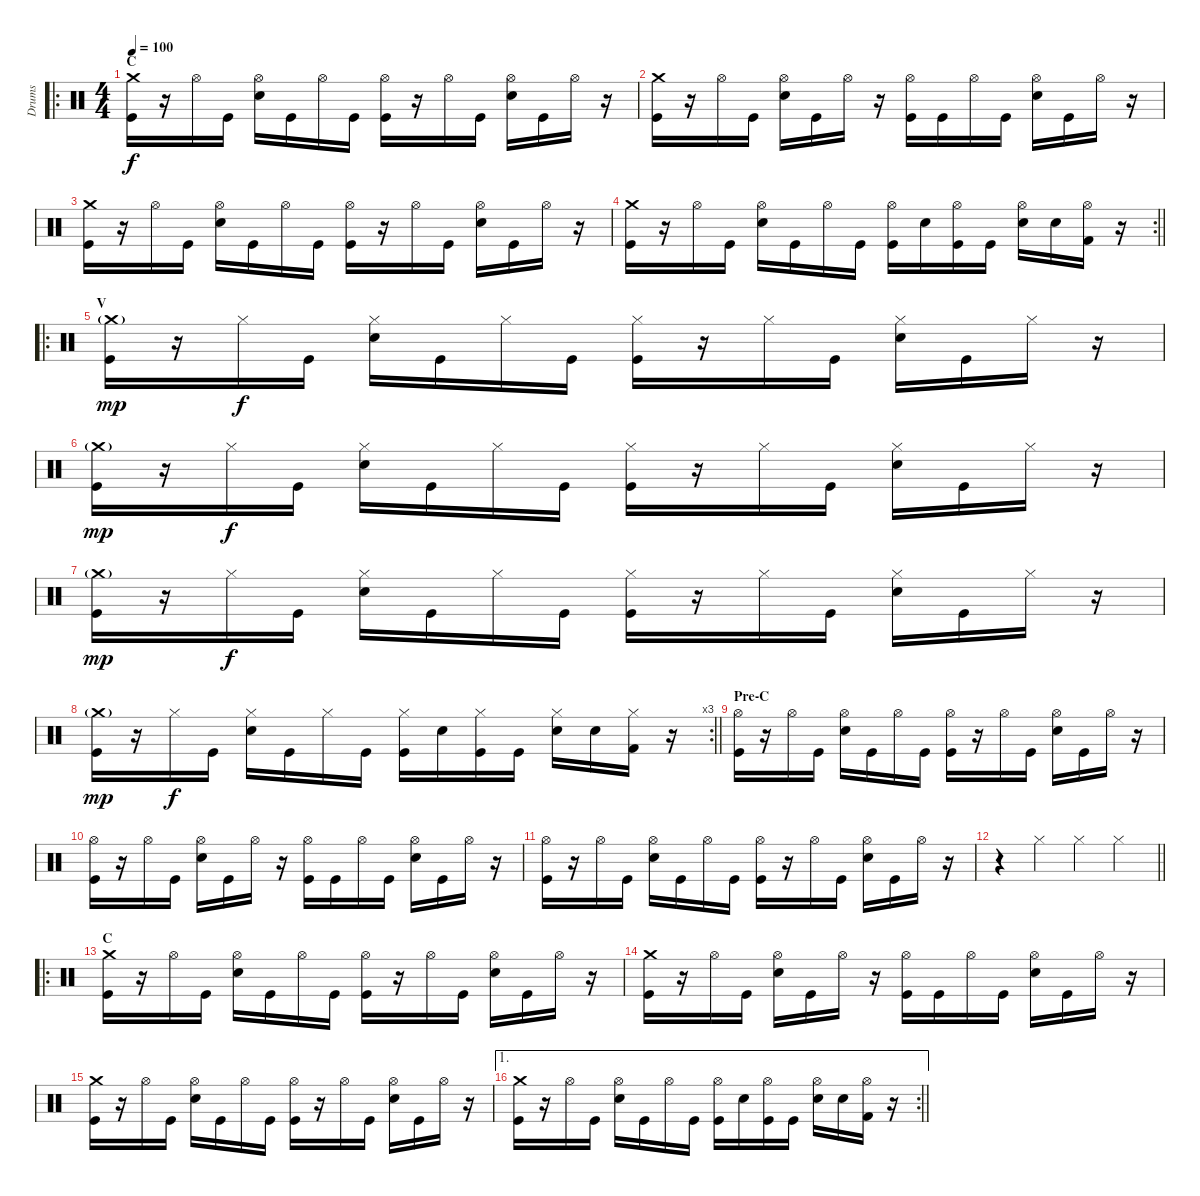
\track ("Drums" "Drums") {instrument percussion}
\staff {score}
\articulation defaults
\ro
\ts (4 4)
\section ("" "C")
\tempo 100
\clef neutral
\ks c
("Crash medium (hit)" "Kick (hit)").16{dy f} r.16 "Hi-Hat (open)".16 "Kick (hit)".16 ("Hi-Hat (open)" "Snare (hit) 2").16 "Kick (hit)".16 "Hi-Hat (open)".16 "Kick (hit)".16 ("Hi-Hat (open)" "Kick (hit)").16 r.16 "Hi-Hat (open)".16 "Kick (hit)".16 ("Hi-Hat (open)" "Snare (hit) 2").16 "Kick (hit)".16 "Hi-Hat (open)".16 r.16 |
("Crash medium (hit)" "Kick (hit)").16 r.16 "Hi-Hat (open)".16 "Kick (hit)".16 ("Hi-Hat (open)" "Snare (hit) 2").16 "Kick (hit)".16 "Hi-Hat (open)".16 r.16 ("Hi-Hat (open)" "Kick (hit)").16 "Kick (hit)".16 "Hi-Hat (open)".16 "Kick (hit)".16 ("Hi-Hat (open)" "Snare (hit) 2").16 "Kick (hit)".16 "Hi-Hat (open)".16 r.16 |
("Crash medium (hit)" "Kick (hit)").16 r.16 "Hi-Hat (open)".16 "Kick (hit)".16 ("Hi-Hat (open)" "Snare (hit) 2").16 "Kick (hit)".16 "Hi-Hat (open)".16 "Kick (hit)".16 ("Hi-Hat (open)" "Kick (hit)").16 r.16 "Hi-Hat (open)".16 "Kick (hit)".16 ("Hi-Hat (open)" "Snare (hit) 2").16 "Kick (hit)".16 "Hi-Hat (open)".16 r.16 |
\rc 2
\barLineRight lightlight
("Crash medium (hit)" "Kick (hit)").16 r.16 "Hi-Hat (open)".16 "Kick (hit)".16 ("Hi-Hat (open)" "Snare (hit) 2").16 "Kick (hit)".16 "Hi-Hat (open)".16 "Kick (hit)".16 ("Hi-Hat (open)" "Kick (hit)").16 "Snare (hit) 2".16 ("Hi-Hat (open)" "Kick (hit)").16 "Kick (hit)".16 ("Hi-Hat (open)" "Snare (hit) 2").16 "Snare (hit) 2".16 ("Hi-Hat (open)" "Kick (hit) 2").16 r.16 |
\ro
\section ("" "V")
("Crash medium (hit)"{g} "Kick (hit)").16{dy mp} r.16 "Hi-Hat (closed)".16{dy f} "Kick (hit)".16 ("Hi-Hat (closed)" "Snare (hit) 2").16 "Kick (hit)".16 "Hi-Hat (closed)".16 "Kick (hit)".16 ("Hi-Hat (closed)" "Kick (hit)").16 r.16 "Hi-Hat (closed)".16 "Kick (hit)".16 ("Hi-Hat (closed)" "Snare (hit) 2").16 "Kick (hit)".16 "Hi-Hat (closed)".16 r.16 |
("Crash medium (hit)"{g} "Kick (hit)").16{dy mp} r.16 "Hi-Hat (closed)".16{dy f} "Kick (hit)".16 ("Hi-Hat (closed)" "Snare (hit) 2").16 "Kick (hit)".16 "Hi-Hat (closed)".16 "Kick (hit)".16 ("Hi-Hat (closed)" "Kick (hit)").16 r.16 "Hi-Hat (closed)".16 "Kick (hit)".16 ("Hi-Hat (closed)" "Snare (hit) 2").16 "Kick (hit)".16 "Hi-Hat (closed)".16 r.16 |
("Crash medium (hit)"{g} "Kick (hit)").16{dy mp} r.16 "Hi-Hat (closed)".16{dy f} "Kick (hit)".16 ("Hi-Hat (closed)" "Snare (hit) 2").16 "Kick (hit)".16 "Hi-Hat (closed)".16 "Kick (hit)".16 ("Hi-Hat (closed)" "Kick (hit)").16 r.16 "Hi-Hat (closed)".16 "Kick (hit)".16 ("Hi-Hat (closed)" "Snare (hit) 2").16 "Kick (hit)".16 "Hi-Hat (closed)".16 r.16 |
\rc 3
\barLineRight lightlight
("Crash medium (hit)"{g} "Kick (hit)").16{dy mp} r.16 "Hi-Hat (closed)".16{dy f} "Kick (hit)".16 ("Hi-Hat (closed)" "Snare (hit) 2").16 "Kick (hit)".16 "Hi-Hat (closed)".16 "Kick (hit)".16 ("Hi-Hat (closed)" "Kick (hit)").16 "Snare (hit) 2".16 ("Hi-Hat (closed)" "Kick (hit)").16 "Kick (hit)".16 ("Hi-Hat (closed)" "Snare (hit) 2").16 "Snare (hit) 2".16 ("Hi-Hat (closed)" "Kick (hit) 2").16 r.16 |
\section ("" "Pre-C")
("Hi-Hat (open)" "Kick (hit)").16 r.16 "Hi-Hat (open)".16 "Kick (hit)".16 ("Hi-Hat (open)" "Snare (hit) 2").16 "Kick (hit)".16 "Hi-Hat (open)".16 "Kick (hit)".16 ("Hi-Hat (open)" "Kick (hit)").16 r.16 "Hi-Hat (open)".16 "Kick (hit)".16 ("Hi-Hat (open)" "Snare (hit) 2").16 "Kick (hit)".16 "Hi-Hat (open)".16 r.16 |
("Hi-Hat (open)" "Kick (hit)").16 r.16 "Hi-Hat (open)".16 "Kick (hit)".16 ("Hi-Hat (open)" "Snare (hit) 2").16 "Kick (hit)".16 "Hi-Hat (open)".16 r.16 ("Hi-Hat (open)" "Kick (hit)").16 "Kick (hit)".16 "Hi-Hat (open)".16 "Kick (hit)".16 ("Hi-Hat (open)" "Snare (hit) 2").16 "Kick (hit)".16 "Hi-Hat (open)".16 r.16 |
("Hi-Hat (open)" "Kick (hit)").16 r.16 "Hi-Hat (open)".16 "Kick (hit)".16 ("Hi-Hat (open)" "Snare (hit) 2").16 "Kick (hit)".16 "Hi-Hat (open)".16 "Kick (hit)".16 ("Hi-Hat (open)" "Kick (hit)").16 r.16 "Hi-Hat (open)".16 "Kick (hit)".16 ("Hi-Hat (open)" "Snare (hit) 2").16 "Kick (hit)".16 "Hi-Hat (open)".16 r.16 |
\barLineRight lightlight
r.4 "Hi-Hat (closed)".4 "Hi-Hat (closed)".4 "Hi-Hat (closed)".4 |
\ro
\section ("" "C")
("Crash medium (hit)" "Kick (hit)").16 r.16 "Hi-Hat (open)".16 "Kick (hit)".16 ("Hi-Hat (open)" "Snare (hit) 2").16 "Kick (hit)".16 "Hi-Hat (open)".16 "Kick (hit)".16 ("Hi-Hat (open)" "Kick (hit)").16 r.16 "Hi-Hat (open)".16 "Kick (hit)".16 ("Hi-Hat (open)" "Snare (hit) 2").16 "Kick (hit)".16 "Hi-Hat (open)".16 r.16 |
("Crash medium (hit)" "Kick (hit)").16 r.16 "Hi-Hat (open)".16 "Kick (hit)".16 ("Hi-Hat (open)" "Snare (hit) 2").16 "Kick (hit)".16 "Hi-Hat (open)".16 r.16 ("Hi-Hat (open)" "Kick (hit)").16 "Kick (hit)".16 "Hi-Hat (open)".16 "Kick (hit)".16 ("Hi-Hat (open)" "Snare (hit) 2").16 "Kick (hit)".16 "Hi-Hat (open)".16 r.16 |
("Crash medium (hit)" "Kick (hit)").16 r.16 "Hi-Hat (open)".16 "Kick (hit)".16 ("Hi-Hat (open)" "Snare (hit) 2").16 "Kick (hit)".16 "Hi-Hat (open)".16 "Kick (hit)".16 ("Hi-Hat (open)" "Kick (hit)").16 r.16 "Hi-Hat (open)".16 "Kick (hit)".16 ("Hi-Hat (open)" "Snare (hit) 2").16 "Kick (hit)".16 "Hi-Hat (open)".16 r.16 |
\ae 1
\rc 2
\barLineRight lightlight
("Crash medium (hit)" "Kick (hit)").16 r.16 "Hi-Hat (open)".16 "Kick (hit)".16 ("Hi-Hat (open)" "Snare (hit) 2").16 "Kick (hit)".16 "Hi-Hat (open)".16 "Kick (hit)".16 ("Hi-Hat (open)" "Kick (hit)").16 "Snare (hit) 2".16 ("Hi-Hat (open)" "Kick (hit)").16 "Kick (hit)".16 ("Hi-Hat (open)" "Snare (hit) 2").16 "Snare (hit) 2".16 ("Hi-Hat (open)" "Kick (hit) 2").16 r.16
